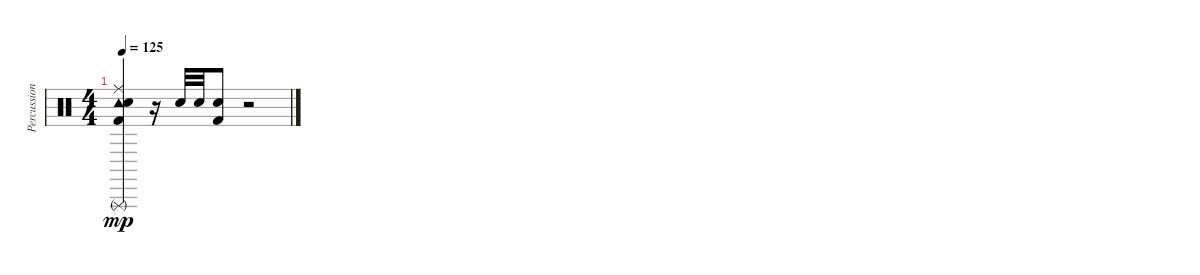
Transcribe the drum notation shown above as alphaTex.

\track ("Percussion" "Percussion") {instrument percussion}
\staff {score}
\articulation defaults
\ts (4 4)
\tempo 125
\clef neutral
\ks c
("Triangle (rnute)" "Tambourine (hit)" "Ride (middle)" "Kick (hit) 2" "Snare (hit) 2").4{dy mp volume 2} r.16 "Snare (hit) 2".32{volume 1} "Snare (hit) 2".32 ("Kick (hit) 2" "Snare (hit) 2").8{volume 0} r.2
